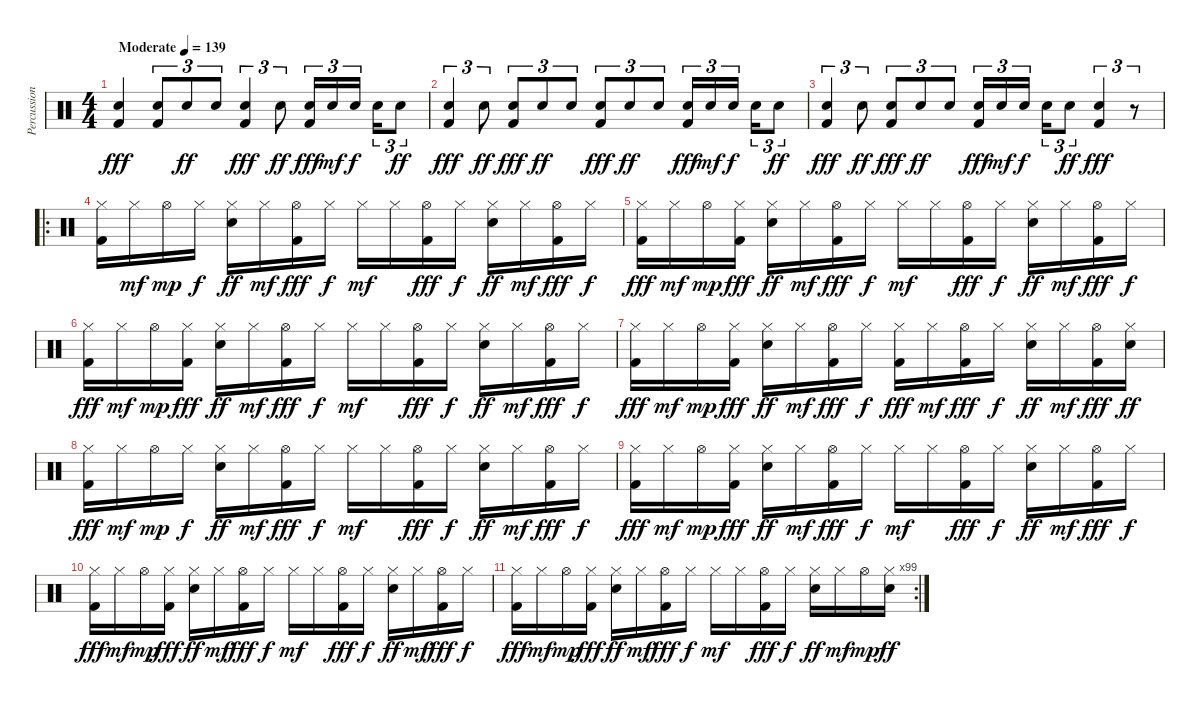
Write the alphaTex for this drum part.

\track ("Percussion" "Percussion") {instrument percussion}
\staff {score}
\articulation defaults
\ts (4 4)
\tempo (139 "Moderate")
\clef neutral
\ks c
("Snare (hit) 2" "Kick (hit) 2").4{dy fff} ("Snare (hit) 2" "Kick (hit) 2").8{tu (3 2)} "Snare (hit) 2".8{tu (3 2) dy ff} "Snare (hit) 2".8{tu (3 2)} ("Snare (hit) 2" "Kick (hit) 2").4{tu (3 2) dy fff} "Snare (hit) 2".8{tu (3 2) dy ff} ("Snare (hit) 2" "Kick (hit) 2").16{tu (3 2) dy fff} "Snare (hit) 2".16{tu (3 2) dy mf} "Snare (hit) 2".16{tu (3 2) dy f beam splitsecondary} "Snare (hit) 2".16{tu (3 2)} "Snare (hit) 2".8{tu (3 2) dy ff} |
("Snare (hit) 2" "Kick (hit) 2").4{tu (3 2) dy fff} "Snare (hit) 2".8{tu (3 2) dy ff} ("Snare (hit) 2" "Kick (hit) 2").8{tu (3 2) dy fff} "Snare (hit) 2".8{tu (3 2) dy ff} "Snare (hit) 2".8{tu (3 2)} ("Snare (hit) 2" "Kick (hit) 2").8{tu (3 2) dy fff} "Snare (hit) 2".8{tu (3 2) dy ff} "Snare (hit) 2".8{tu (3 2)} ("Snare (hit) 2" "Kick (hit) 2").16{tu (3 2) dy fff} "Snare (hit) 2".16{tu (3 2) dy mf} "Snare (hit) 2".16{tu (3 2) dy f beam splitsecondary} "Snare (hit) 2".16{tu (3 2)} "Snare (hit) 2".8{tu (3 2) dy ff} |
("Snare (hit) 2" "Kick (hit) 2").4{tu (3 2) dy fff} "Snare (hit) 2".8{tu (3 2) dy ff} ("Snare (hit) 2" "Kick (hit) 2").8{tu (3 2) dy fff} "Snare (hit) 2".8{tu (3 2) dy ff} "Snare (hit) 2".8{tu (3 2)} ("Snare (hit) 2" "Kick (hit) 2").16{tu (3 2) dy fff} "Snare (hit) 2".16{tu (3 2) dy mf} "Snare (hit) 2".16{tu (3 2) dy f beam splitsecondary} "Snare (hit) 2".16{tu (3 2)} "Snare (hit) 2".8{tu (3 2) dy ff} ("Snare (hit) 2" "Kick (hit) 2").4{tu (3 2) dy fff} r.8{tu (3 2)} |
\ro
("Hi-Hat (closed)" "Kick (hit) 2").16 "Hi-Hat (closed)".16{dy mf} "Hi-Hat (open)".16{dy mp} "Hi-Hat (closed)".16{dy f} ("Hi-Hat (closed)" "Snare (hit) 2").16{dy ff} "Hi-Hat (closed)".16{dy mf} ("Hi-Hat (open)" "Kick (hit) 2").16{dy fff} "Hi-Hat (closed)".16{dy f} "Hi-Hat (closed)".16{dy mf} "Hi-Hat (closed)".16 ("Hi-Hat (open)" "Kick (hit) 2").16{dy fff} "Hi-Hat (closed)".16{dy f} ("Hi-Hat (closed)" "Snare (hit) 2").16{dy ff} "Hi-Hat (closed)".16{dy mf} ("Hi-Hat (open)" "Kick (hit) 2").16{dy fff} "Hi-Hat (closed)".16{dy f} |
("Hi-Hat (closed)" "Kick (hit) 2").16{dy fff} "Hi-Hat (closed)".16{dy mf} "Hi-Hat (open)".16{dy mp} ("Hi-Hat (closed)" "Kick (hit) 2").16{dy fff} ("Hi-Hat (closed)" "Snare (hit) 2").16{dy ff} "Hi-Hat (closed)".16{dy mf} ("Hi-Hat (open)" "Kick (hit) 2").16{dy fff} "Hi-Hat (closed)".16{dy f} "Hi-Hat (closed)".16{dy mf} "Hi-Hat (closed)".16 ("Hi-Hat (open)" "Kick (hit) 2").16{dy fff} "Hi-Hat (closed)".16{dy f} ("Hi-Hat (closed)" "Snare (hit) 2").16{dy ff} "Hi-Hat (closed)".16{dy mf} ("Hi-Hat (open)" "Kick (hit) 2").16{dy fff} "Hi-Hat (closed)".16{dy f} |
("Hi-Hat (closed)" "Kick (hit) 2").16{dy fff} "Hi-Hat (closed)".16{dy mf} "Hi-Hat (open)".16{dy mp} ("Hi-Hat (closed)" "Kick (hit) 2").16{dy fff} ("Hi-Hat (closed)" "Snare (hit) 2").16{dy ff} "Hi-Hat (closed)".16{dy mf} ("Hi-Hat (open)" "Kick (hit) 2").16{dy fff} "Hi-Hat (closed)".16{dy f} "Hi-Hat (closed)".16{dy mf} "Hi-Hat (closed)".16 ("Hi-Hat (open)" "Kick (hit) 2").16{dy fff} "Hi-Hat (closed)".16{dy f} ("Hi-Hat (closed)" "Snare (hit) 2").16{dy ff} "Hi-Hat (closed)".16{dy mf} ("Hi-Hat (open)" "Kick (hit) 2").16{dy fff} "Hi-Hat (closed)".16{dy f} |
("Hi-Hat (closed)" "Kick (hit) 2").16{dy fff} "Hi-Hat (closed)".16{dy mf} "Hi-Hat (open)".16{dy mp} ("Hi-Hat (closed)" "Kick (hit) 2").16{dy fff} ("Hi-Hat (closed)" "Snare (hit) 2").16{dy ff} "Hi-Hat (closed)".16{dy mf} ("Hi-Hat (open)" "Kick (hit) 2").16{dy fff} "Hi-Hat (closed)".16{dy f} ("Hi-Hat (closed)" "Kick (hit) 2").16{dy fff} "Hi-Hat (closed)".16{dy mf} ("Hi-Hat (open)" "Kick (hit) 2").16{dy fff} "Hi-Hat (closed)".16{dy f} ("Hi-Hat (closed)" "Snare (hit) 2").16{dy ff} "Hi-Hat (closed)".16{dy mf} ("Hi-Hat (open)" "Kick (hit) 2").16{dy fff} ("Hi-Hat (closed)" "Snare (hit) 2").16{dy ff} |
("Hi-Hat (closed)" "Kick (hit) 2").16{dy fff} "Hi-Hat (closed)".16{dy mf} "Hi-Hat (open)".16{dy mp} "Hi-Hat (closed)".16{dy f} ("Hi-Hat (closed)" "Snare (hit) 2").16{dy ff} "Hi-Hat (closed)".16{dy mf} ("Hi-Hat (open)" "Kick (hit) 2").16{dy fff} "Hi-Hat (closed)".16{dy f} "Hi-Hat (closed)".16{dy mf} "Hi-Hat (closed)".16 ("Hi-Hat (open)" "Kick (hit) 2").16{dy fff} "Hi-Hat (closed)".16{dy f} ("Hi-Hat (closed)" "Snare (hit) 2").16{dy ff} "Hi-Hat (closed)".16{dy mf} ("Hi-Hat (open)" "Kick (hit) 2").16{dy fff} "Hi-Hat (closed)".16{dy f} |
("Hi-Hat (closed)" "Kick (hit) 2").16{dy fff} "Hi-Hat (closed)".16{dy mf} "Hi-Hat (open)".16{dy mp} ("Hi-Hat (closed)" "Kick (hit) 2").16{dy fff} ("Hi-Hat (closed)" "Snare (hit) 2").16{dy ff} "Hi-Hat (closed)".16{dy mf} ("Hi-Hat (open)" "Kick (hit) 2").16{dy fff} "Hi-Hat (closed)".16{dy f} "Hi-Hat (closed)".16{dy mf} "Hi-Hat (closed)".16 ("Hi-Hat (open)" "Kick (hit) 2").16{dy fff} "Hi-Hat (closed)".16{dy f} ("Hi-Hat (closed)" "Snare (hit) 2").16{dy ff} "Hi-Hat (closed)".16{dy mf} ("Hi-Hat (open)" "Kick (hit) 2").16{dy fff} "Hi-Hat (closed)".16{dy f} |
("Hi-Hat (closed)" "Kick (hit) 2").16{dy fff} "Hi-Hat (closed)".16{dy mf} "Hi-Hat (open)".16{dy mp} ("Hi-Hat (closed)" "Kick (hit) 2").16{dy fff} ("Hi-Hat (closed)" "Snare (hit) 2").16{dy ff} "Hi-Hat (closed)".16{dy mf} ("Hi-Hat (open)" "Kick (hit) 2").16{dy fff} "Hi-Hat (closed)".16{dy f} "Hi-Hat (closed)".16{dy mf} "Hi-Hat (closed)".16 ("Hi-Hat (open)" "Kick (hit) 2").16{dy fff} "Hi-Hat (closed)".16{dy f} ("Hi-Hat (closed)" "Snare (hit) 2").16{dy ff} "Hi-Hat (closed)".16{dy mf} ("Hi-Hat (open)" "Kick (hit) 2").16{dy fff} "Hi-Hat (closed)".16{dy f} |
\rc 99
("Hi-Hat (closed)" "Kick (hit) 2").16{dy fff} "Hi-Hat (closed)".16{dy mf} "Hi-Hat (open)".16{dy mp} ("Hi-Hat (closed)" "Kick (hit) 2").16{dy fff} ("Hi-Hat (closed)" "Snare (hit) 2").16{dy ff} "Hi-Hat (closed)".16{dy mf} ("Hi-Hat (open)" "Kick (hit) 2").16{dy fff} "Hi-Hat (closed)".16{dy f} "Hi-Hat (closed)".16{dy mf} "Hi-Hat (closed)".16 ("Hi-Hat (open)" "Kick (hit) 2").16{dy fff} "Hi-Hat (closed)".16{dy f} ("Hi-Hat (closed)" "Snare (hit) 2").16{dy ff} "Hi-Hat (closed)".16{dy mf} "Hi-Hat (open)".16{dy mp} ("Hi-Hat (closed)" "Snare (hit) 2").16{dy ff}
